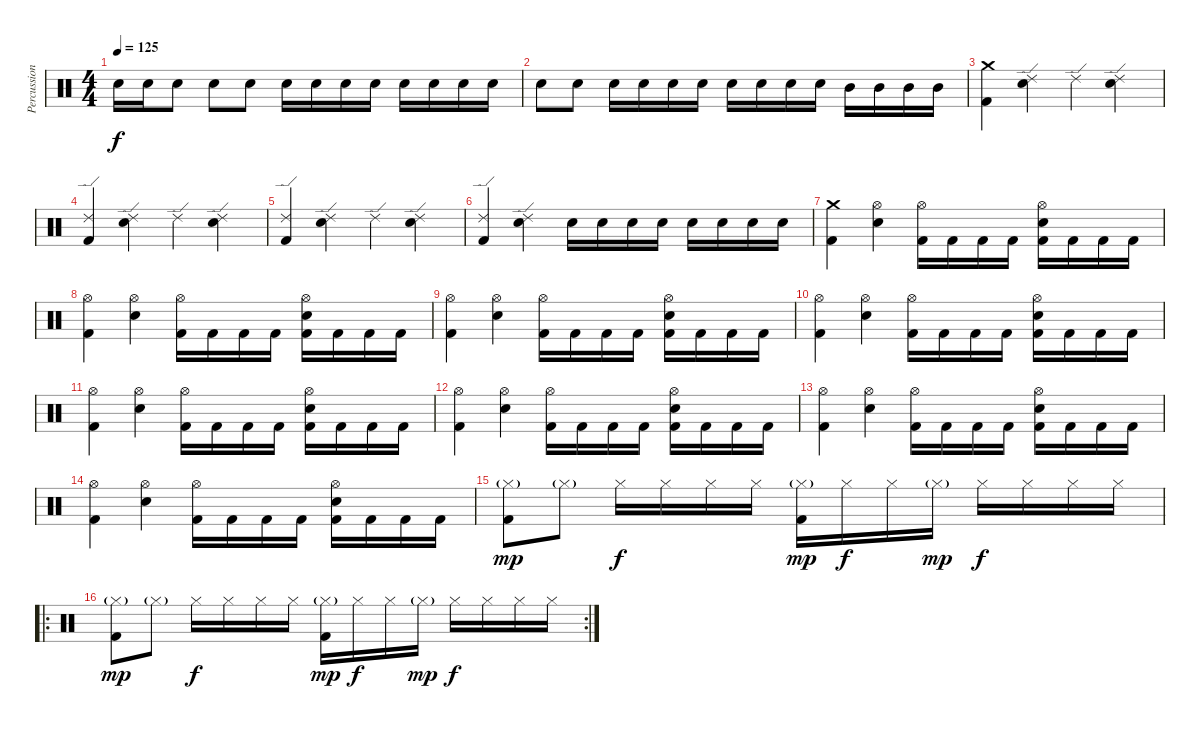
\track ("Percussion" "Percussion") {instrument percussion}
\staff {score}
\articulation defaults
\ts (4 4)
\tempo 125
\clef neutral
\ks c "Electric Snare (hit)".16{dy f} "Electric Snare (hit)".16 "Electric Snare (hit)".8 "Electric Snare (hit)".8 "Electric Snare (hit)".8 "Electric Snare (hit)".16 "Electric Snare (hit)".16 "Electric Snare (hit)".16 "Electric Snare (hit)".16 "Electric Snare (hit)".16 "Electric Snare (hit)".16 "Electric Snare (hit)".16 "Electric Snare (hit)".16
|
"Electric Snare (hit)".8 "Electric Snare (hit)".8 "Electric Snare (hit)".16 "Electric Snare (hit)".16 "Electric Snare (hit)".16 "Electric Snare (hit)".16 "Electric Snare (hit)".16 "Electric Snare (hit)".16 "Electric Snare (hit)".16 "Electric Snare (hit)".16 "Mid Tom (hit)".16 "Mid Tom (hit)".16 "Mid Tom (hit)".16 "Mid Tom (hit)".16 |
("Crash medium (hit)" "Kick (hit) 2").4 ("Ride (edge) 2" "Electric Snare (hit)").4 "Ride (edge) 2".4 ("Ride (edge) 2" "Electric Snare (hit)").4 |
("Ride (edge) 2" "Kick (hit) 2").4 ("Ride (edge) 2" "Electric Snare (hit)").4 "Ride (edge) 2".4 ("Ride (edge) 2" "Electric Snare (hit)").4 |
("Ride (edge) 2" "Kick (hit) 2").4 ("Ride (edge) 2" "Electric Snare (hit)").4 "Ride (edge) 2".4 ("Ride (edge) 2" "Electric Snare (hit)").4 |
("Ride (edge) 2" "Kick (hit) 2").4 ("Ride (edge) 2" "Electric Snare (hit)").4 "Electric Snare (hit)".16 "Electric Snare (hit)".16 "Electric Snare (hit)".16 "Electric Snare (hit)".16 "Electric Snare (hit)".16 "Electric Snare (hit)".16 "Electric Snare (hit)".16 "Electric Snare (hit)".16 |
("Crash medium (hit)" "Kick (hit) 2").4 ("Hi-Hat (open)" "Electric Snare (hit)").4 ("Hi-Hat (open)" "Kick (hit) 2").16 "Kick (hit) 2".16 "Kick (hit) 2".16 "Kick (hit) 2".16 ("Hi-Hat (open)" "Electric Snare (hit)" "Kick (hit) 2").16 "Kick (hit) 2".16 "Kick (hit) 2".16 "Kick (hit) 2".16 |
("Hi-Hat (open)" "Kick (hit) 2").4 ("Hi-Hat (open)" "Electric Snare (hit)").4 ("Hi-Hat (open)" "Kick (hit) 2").16 "Kick (hit) 2".16 "Kick (hit) 2".16 "Kick (hit) 2".16 ("Hi-Hat (open)" "Electric Snare (hit)" "Kick (hit) 2").16 "Kick (hit) 2".16 "Kick (hit) 2".16 "Kick (hit) 2".16 |
("Hi-Hat (open)" "Kick (hit) 2").4 ("Hi-Hat (open)" "Electric Snare (hit)").4 ("Hi-Hat (open)" "Kick (hit) 2").16 "Kick (hit) 2".16 "Kick (hit) 2".16 "Kick (hit) 2".16 ("Hi-Hat (open)" "Electric Snare (hit)" "Kick (hit) 2").16 "Kick (hit) 2".16 "Kick (hit) 2".16 "Kick (hit) 2".16 |
("Hi-Hat (open)" "Kick (hit) 2").4 ("Hi-Hat (open)" "Electric Snare (hit)").4 ("Hi-Hat (open)" "Kick (hit) 2").16 "Kick (hit) 2".16 "Kick (hit) 2".16 "Kick (hit) 2".16 ("Hi-Hat (open)" "Electric Snare (hit)" "Kick (hit) 2").16 "Kick (hit) 2".16 "Kick (hit) 2".16 "Kick (hit) 2".16 |
("Hi-Hat (open)" "Kick (hit) 2").4 ("Hi-Hat (open)" "Electric Snare (hit)").4 ("Hi-Hat (open)" "Kick (hit) 2").16 "Kick (hit) 2".16 "Kick (hit) 2".16 "Kick (hit) 2".16 ("Hi-Hat (open)" "Electric Snare (hit)" "Kick (hit) 2").16 "Kick (hit) 2".16 "Kick (hit) 2".16 "Kick (hit) 2".16 |
("Hi-Hat (open)" "Kick (hit) 2").4 ("Hi-Hat (open)" "Electric Snare (hit)").4 ("Hi-Hat (open)" "Kick (hit) 2").16 "Kick (hit) 2".16 "Kick (hit) 2".16 "Kick (hit) 2".16 ("Hi-Hat (open)" "Electric Snare (hit)" "Kick (hit) 2").16 "Kick (hit) 2".16 "Kick (hit) 2".16 "Kick (hit) 2".16 |
("Hi-Hat (open)" "Kick (hit) 2").4 ("Hi-Hat (open)" "Electric Snare (hit)").4 ("Hi-Hat (open)" "Kick (hit) 2").16 "Kick (hit) 2".16 "Kick (hit) 2".16 "Kick (hit) 2".16 ("Hi-Hat (open)" "Electric Snare (hit)" "Kick (hit) 2").16 "Kick (hit) 2".16 "Kick (hit) 2".16 "Kick (hit) 2".16 |
("Hi-Hat (open)" "Kick (hit) 2").4 ("Hi-Hat (open)" "Electric Snare (hit)").4 ("Hi-Hat (open)" "Kick (hit) 2").16 "Kick (hit) 2".16 "Kick (hit) 2".16 "Kick (hit) 2".16 ("Hi-Hat (open)" "Electric Snare (hit)" "Kick (hit) 2").16 "Kick (hit) 2".16 "Kick (hit) 2".16 "Kick (hit) 2".16 |
("Hi-Hat (closed)"{g} "Kick (hit) 2").8{dy mp} "Hi-Hat (closed)"{g}.8 "Hi-Hat (closed)".16{dy f} "Hi-Hat (closed)".16 "Hi-Hat (closed)".16 "Hi-Hat (closed)".16 ("Hi-Hat (closed)"{g} "Kick (hit) 2").16{dy mp} "Hi-Hat (closed)".16{dy f} "Hi-Hat (closed)".16 "Hi-Hat (closed)"{g}.16{dy mp} "Hi-Hat (closed)".16{dy f} "Hi-Hat (closed)".16 "Hi-Hat (closed)".16 "Hi-Hat (closed)".16 |
\ro
\rc 2
("Hi-Hat (closed)"{g} "Kick (hit) 2").8{dy mp} "Hi-Hat (closed)"{g}.8 "Hi-Hat (closed)".16{dy f} "Hi-Hat (closed)".16 "Hi-Hat (closed)".16 "Hi-Hat (closed)".16 ("Hi-Hat (closed)"{g} "Kick (hit) 2").16{dy mp} "Hi-Hat (closed)".16{dy f} "Hi-Hat (closed)".16 "Hi-Hat (closed)"{g}.16{dy mp} "Hi-Hat (closed)".16{dy f} "Hi-Hat (closed)".16 "Hi-Hat (closed)".16 "Hi-Hat (closed)".16
